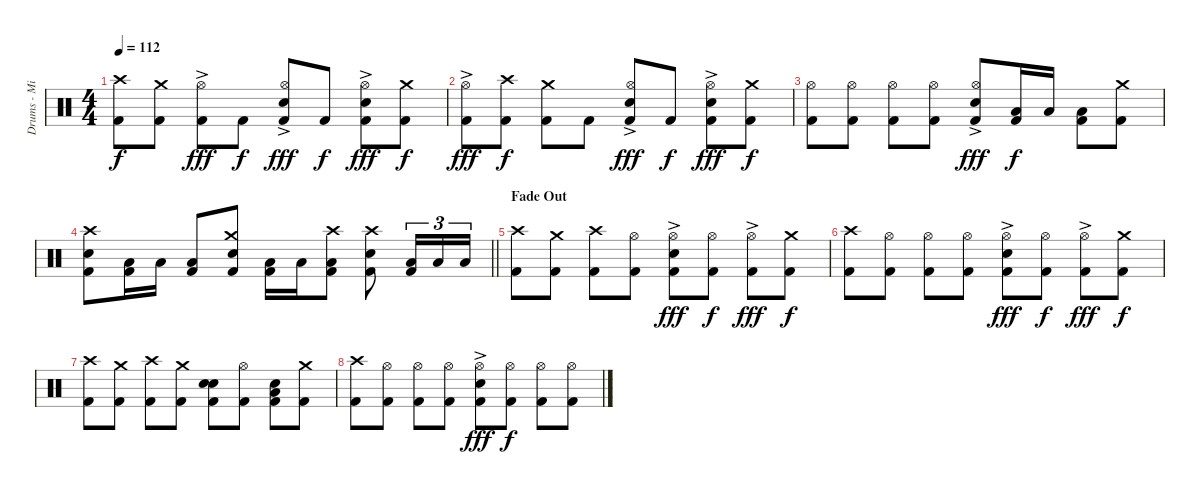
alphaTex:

\track ("Drums - Mikko" "Drums - Mi") {instrument percussion}
\staff {score}
\articulation defaults
\ts (4 4)
\tempo 112
\clef neutral
\ks c
("Crash high (hit)" "Kick (hit) 2").8{dy f} ("Crash medium (hit)" "Kick (hit) 2").8 ("Hi-Hat (open)"{ac} "Kick (hit) 2").8{dy fff} "Kick (hit) 2".8{dy f} ("Hi-Hat (open)"{ac} "Electric Snare (hit)" "Kick (hit) 2").8{dy fff} "Kick (hit) 2".8{dy f} ("Hi-Hat (open)"{ac} "Electric Snare (hit)"{ac} "Kick (hit) 2").8{dy fff} ("Crash medium (hit)" "Kick (hit) 2").8{dy f} |
("Hi-Hat (open)"{ac} "Kick (hit) 2").8{dy fff} ("Crash high (hit)" "Kick (hit) 2").8{dy f} ("Crash medium (hit)" "Kick (hit) 2").8 "Kick (hit) 2".8 ("Hi-Hat (open)"{ac} "Electric Snare (hit)" "Kick (hit) 2").8{dy fff} "Kick (hit) 2".8{dy f} ("Hi-Hat (open)"{ac} "Electric Snare (hit)"{ac} "Kick (hit) 2").8{dy fff} ("Crash medium (hit)" "Kick (hit) 2").8{dy f} |
("Hi-Hat (open)" "Kick (hit) 2").8 ("Hi-Hat (open)" "Kick (hit) 2").8 ("Hi-Hat (open)" "Kick (hit) 2").8 ("Hi-Hat (open)" "Kick (hit) 2").8 ("Hi-Hat (open)"{ac} "Electric Snare (hit)" "Kick (hit) 2").8{dy fff} ("Low Tom (hit)" "Kick (hit) 2").16{dy f} "Low Tom (hit)".16 ("Low Tom (hit)" "Kick (hit) 2").8 ("Crash medium (hit)" "Kick (hit) 2").8 |
\barLineRight lightlight
("Crash high (hit)" "Electric Snare (hit)" "Kick (hit) 2").8 ("Low Tom (hit)" "Kick (hit) 2").16 "Low Tom (hit)".16 ("Low Tom (hit)" "Kick (hit) 2").8 ("Crash medium (hit)" "Electric Snare (hit)" "Kick (hit) 2").8 ("Low Tom (hit)" "Kick (hit) 2").16 "Low Tom (hit)".16 ("Crash high (hit)" "Low Tom (hit)" "Kick (hit) 2").8 ("Crash high (hit)" "Electric Snare (hit)" "Kick (hit) 2").8 ("Low Floor Tom (hit)" "Kick (hit) 2").16{tu (3 2)} "Low Tom (hit)".16{tu (3 2)} "Low Floor Tom (hit)".16{tu (3 2)} |
\section ("" "Fade Out")
("Crash high (hit)" "Kick (hit) 2").8{volume 0} ("Crash medium (hit)" "Kick (hit) 2").8 ("Crash high (hit)" "Kick (hit) 2").8 ("Hi-Hat (open)" "Kick (hit) 2").8 ("Hi-Hat (open)"{ac} "Electric Snare (hit)"{ac} "Kick (hit) 2").8{dy fff} ("Hi-Hat (open)" "Kick (hit) 2").8{dy f} ("Hi-Hat (open)"{ac} "Kick (hit) 2").8{dy fff} ("Crash medium (hit)" "Kick (hit) 2").8{dy f} |
("Crash high (hit)" "Kick (hit) 2").8 ("Hi-Hat (open)" "Kick (hit) 2").8 ("Hi-Hat (open)" "Kick (hit) 2").8 ("Hi-Hat (open)" "Kick (hit) 2").8 ("Hi-Hat (open)"{ac} "Electric Snare (hit)" "Kick (hit) 2").8{dy fff} ("Hi-Hat (open)" "Kick (hit) 2").8{dy f} ("Hi-Hat (open)"{ac} "Kick (hit) 2").8{dy fff} ("Crash medium (hit)" "Kick (hit) 2").8{dy f} |
("Crash high (hit)" "Kick (hit) 2").8 ("Crash medium (hit)" "Kick (hit) 2").8 ("Crash high (hit)" "Kick (hit) 2").8 ("Crash medium (hit)" "Kick (hit) 2").8 ("Electric Snare (hit)" "Electric Snare (hit)" "Kick (hit) 2").8 ("Hi-Hat (open)" "Kick (hit) 2").8 ("Electric Snare (hit)" "Low Tom (hit)" "Kick (hit) 2").8 ("Crash medium (hit)" "Kick (hit) 2").8 |
("Crash high (hit)" "Kick (hit) 2").8 ("Hi-Hat (open)" "Kick (hit) 2").8 ("Hi-Hat (open)" "Kick (hit) 2").8 ("Hi-Hat (open)" "Kick (hit) 2").8 ("Hi-Hat (open)"{ac} "Electric Snare (hit)" "Kick (hit) 2").8{dy fff} ("Hi-Hat (open)" "Kick (hit) 2").8{dy f} ("Hi-Hat (open)" "Kick (hit) 2").8 ("Hi-Hat (open)" "Kick (hit) 2").8
